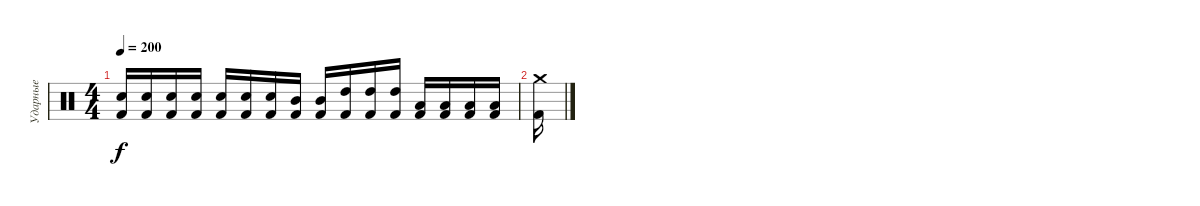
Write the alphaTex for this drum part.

\track ("Ударные" "Ударные") {instrument percussion}
\staff {score}
\articulation defaults
\ts (4 4)
\tempo 200
\clef neutral
\ks c
("Snare (hit) 2" "Kick (hit) 2").16{dy f} ("Snare (hit) 2" "Kick (hit) 2").16 ("Snare (hit) 2" "Kick (hit) 2").16 ("Snare (hit) 2" "Kick (hit) 2").16 ("Snare (hit) 2" "Kick (hit) 2").16 ("Snare (hit) 2" "Kick (hit) 2").16 ("Snare (hit) 2" "Kick (hit) 2").16 ("Mid Tom (hit)" "Kick (hit) 2").16 ("Mid Tom (hit)" "Kick (hit) 2").16 ("High Tom (hit)" "Kick (hit) 2").16 ("High Tom (hit)" "Kick (hit) 2").16 ("High Tom (hit)" "Kick (hit) 2").16 ("Low Tom (hit)" "Kick (hit) 2").16 ("Low Tom (hit)" "Kick (hit) 2").16 ("Low Tom (hit)" "Kick (hit) 2").16 ("Low Tom (hit)" "Kick (hit) 2").16 |
("Crash medium (hit)" "Kick (hit) 2").16
